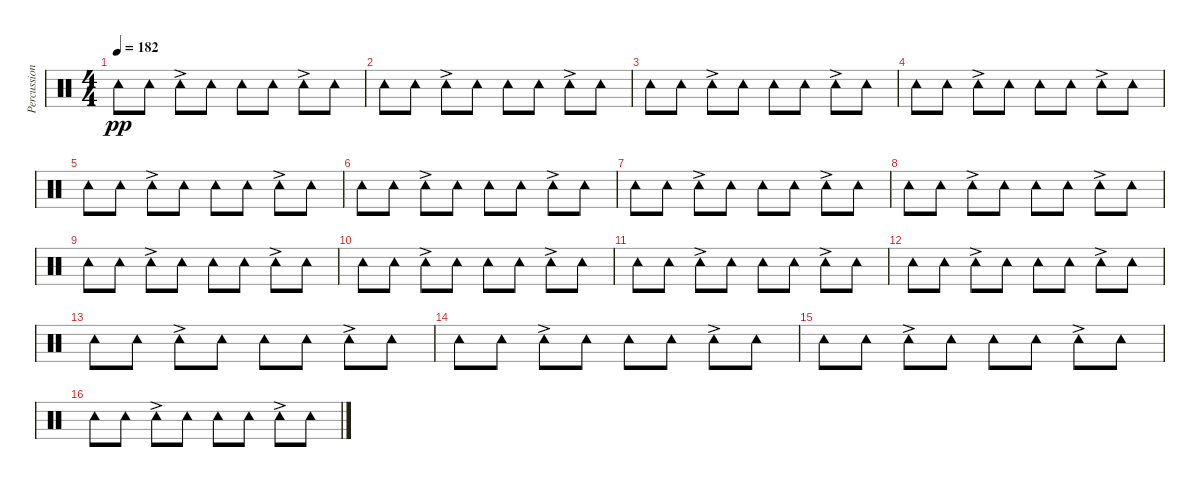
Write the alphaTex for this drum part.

\track ("Percussion (Tainaka Ritsu)" "Percussion") {instrument percussion}
\staff {score}
\articulation defaults
\ts (4 4)
\tempo 182
\clef neutral
\ks c "Tambourine (hit)".8{dy pp} "Tambourine (hit)".8 "Tambourine (hit)"{ac}.8 "Tambourine (hit)".8 "Tambourine (hit)".8 "Tambourine (hit)".8 "Tambourine (hit)"{ac}.8 "Tambourine (hit)".8
|
"Tambourine (hit)".8 "Tambourine (hit)".8 "Tambourine (hit)"{ac}.8 "Tambourine (hit)".8 "Tambourine (hit)".8 "Tambourine (hit)".8 "Tambourine (hit)"{ac}.8 "Tambourine (hit)".8 |
"Tambourine (hit)".8 "Tambourine (hit)".8 "Tambourine (hit)"{ac}.8 "Tambourine (hit)".8 "Tambourine (hit)".8 "Tambourine (hit)".8 "Tambourine (hit)"{ac}.8 "Tambourine (hit)".8 |
"Tambourine (hit)".8 "Tambourine (hit)".8 "Tambourine (hit)"{ac}.8 "Tambourine (hit)".8 "Tambourine (hit)".8 "Tambourine (hit)".8 "Tambourine (hit)"{ac}.8 "Tambourine (hit)".8 |
"Tambourine (hit)".8 "Tambourine (hit)".8 "Tambourine (hit)"{ac}.8 "Tambourine (hit)".8 "Tambourine (hit)".8 "Tambourine (hit)".8 "Tambourine (hit)"{ac}.8 "Tambourine (hit)".8 |
"Tambourine (hit)".8 "Tambourine (hit)".8 "Tambourine (hit)"{ac}.8 "Tambourine (hit)".8 "Tambourine (hit)".8 "Tambourine (hit)".8 "Tambourine (hit)"{ac}.8 "Tambourine (hit)".8 |
"Tambourine (hit)".8 "Tambourine (hit)".8 "Tambourine (hit)"{ac}.8 "Tambourine (hit)".8 "Tambourine (hit)".8 "Tambourine (hit)".8 "Tambourine (hit)"{ac}.8 "Tambourine (hit)".8 |
"Tambourine (hit)".8 "Tambourine (hit)".8 "Tambourine (hit)"{ac}.8 "Tambourine (hit)".8 "Tambourine (hit)".8 "Tambourine (hit)".8 "Tambourine (hit)"{ac}.8 "Tambourine (hit)".8 |
"Tambourine (hit)".8 "Tambourine (hit)".8 "Tambourine (hit)"{ac}.8 "Tambourine (hit)".8 "Tambourine (hit)".8 "Tambourine (hit)".8 "Tambourine (hit)"{ac}.8 "Tambourine (hit)".8 |
"Tambourine (hit)".8 "Tambourine (hit)".8 "Tambourine (hit)"{ac}.8 "Tambourine (hit)".8 "Tambourine (hit)".8 "Tambourine (hit)".8 "Tambourine (hit)"{ac}.8 "Tambourine (hit)".8 |
"Tambourine (hit)".8 "Tambourine (hit)".8 "Tambourine (hit)"{ac}.8 "Tambourine (hit)".8 "Tambourine (hit)".8 "Tambourine (hit)".8 "Tambourine (hit)"{ac}.8 "Tambourine (hit)".8 |
"Tambourine (hit)".8 "Tambourine (hit)".8 "Tambourine (hit)"{ac}.8 "Tambourine (hit)".8 "Tambourine (hit)".8 "Tambourine (hit)".8 "Tambourine (hit)"{ac}.8 "Tambourine (hit)".8 |
"Tambourine (hit)".8 "Tambourine (hit)".8 "Tambourine (hit)"{ac}.8 "Tambourine (hit)".8 "Tambourine (hit)".8 "Tambourine (hit)".8 "Tambourine (hit)"{ac}.8 "Tambourine (hit)".8 |
"Tambourine (hit)".8 "Tambourine (hit)".8 "Tambourine (hit)"{ac}.8 "Tambourine (hit)".8 "Tambourine (hit)".8 "Tambourine (hit)".8 "Tambourine (hit)"{ac}.8 "Tambourine (hit)".8 |
"Tambourine (hit)".8 "Tambourine (hit)".8 "Tambourine (hit)"{ac}.8 "Tambourine (hit)".8 "Tambourine (hit)".8 "Tambourine (hit)".8 "Tambourine (hit)"{ac}.8 "Tambourine (hit)".8 |
"Tambourine (hit)".8 "Tambourine (hit)".8 "Tambourine (hit)"{ac}.8 "Tambourine (hit)".8 "Tambourine (hit)".8 "Tambourine (hit)".8 "Tambourine (hit)"{ac}.8 "Tambourine (hit)".8
